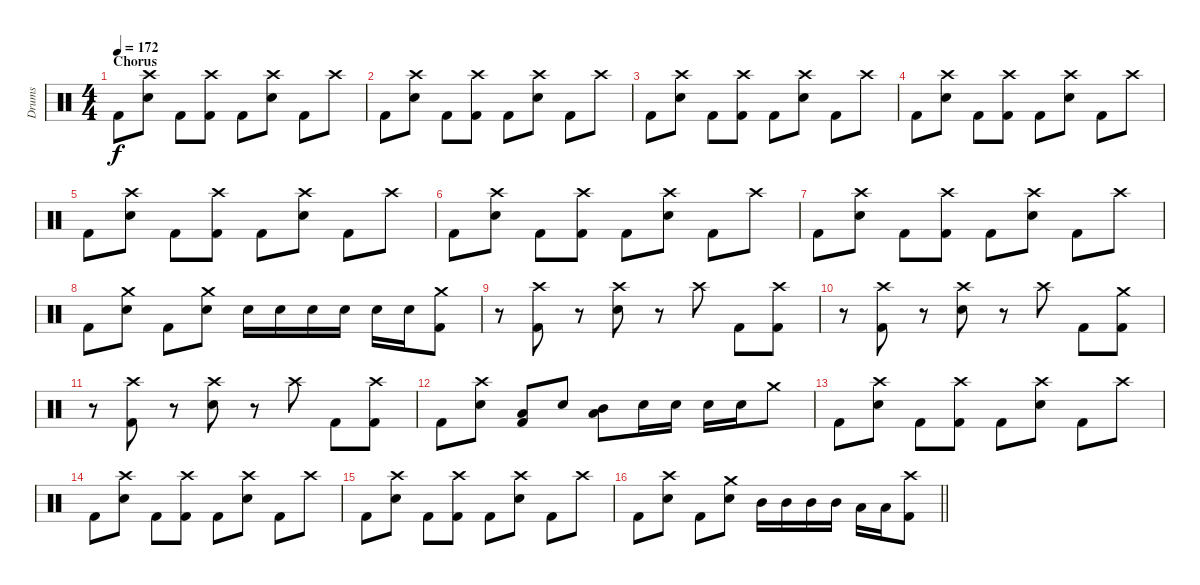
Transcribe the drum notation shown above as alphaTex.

\track ("Drums" "Drums") {instrument percussion}
\staff {score}
\articulation defaults
\ts (4 4)
\section ("" "Chorus")
\tempo 172
\clef neutral
\ks c "Kick (hit) 2".8{dy f}
("Crash high (hit)" "Electric Snare (hit)").8 "Kick (hit) 2".8 ("Crash high (hit)" "Kick (hit) 2").8 "Kick (hit) 2".8 ("Crash high (hit)" "Electric Snare (hit)").8 "Kick (hit) 2".8 "Crash high (hit)".8 |
"Kick (hit) 2".8 ("Crash high (hit)" "Electric Snare (hit)").8 "Kick (hit) 2".8 ("Crash high (hit)" "Kick (hit) 2").8 "Kick (hit) 2".8 ("Crash high (hit)" "Electric Snare (hit)").8 "Kick (hit) 2".8 "Crash high (hit)".8 |
"Kick (hit) 2".8 ("Crash high (hit)" "Electric Snare (hit)").8 "Kick (hit) 2".8 ("Crash high (hit)" "Kick (hit) 2").8 "Kick (hit) 2".8 ("Crash high (hit)" "Electric Snare (hit)").8 "Kick (hit) 2".8 "Crash high (hit)".8 |
"Kick (hit) 2".8 ("Crash high (hit)" "Electric Snare (hit)").8 "Kick (hit) 2".8 ("Crash high (hit)" "Kick (hit) 2").8 "Kick (hit) 2".8 ("Crash high (hit)" "Electric Snare (hit)").8 "Kick (hit) 2".8 "Crash high (hit)".8 |
"Kick (hit) 2".8 ("Crash high (hit)" "Electric Snare (hit)").8 "Kick (hit) 2".8 ("Crash high (hit)" "Kick (hit) 2").8 "Kick (hit) 2".8 ("Crash high (hit)" "Electric Snare (hit)").8 "Kick (hit) 2".8 "Crash high (hit)".8 |
"Kick (hit) 2".8 ("Crash high (hit)" "Electric Snare (hit)").8 "Kick (hit) 2".8 ("Crash high (hit)" "Kick (hit) 2").8 "Kick (hit) 2".8 ("Crash high (hit)" "Electric Snare (hit)").8 "Kick (hit) 2".8 "Crash high (hit)".8 |
"Kick (hit) 2".8 ("Crash high (hit)" "Electric Snare (hit)").8 "Kick (hit) 2".8 ("Crash high (hit)" "Kick (hit) 2").8 "Kick (hit) 2".8 ("Crash high (hit)" "Electric Snare (hit)").8 "Kick (hit) 2".8 "Crash high (hit)".8 |
"Kick (hit) 2".8 ("Crash medium (hit)" "Electric Snare (hit)").8 "Kick (hit) 2".8 ("Crash medium (hit)" "Electric Snare (hit)").8 "Electric Snare (hit)".16 "Electric Snare (hit)".16 "Electric Snare (hit)".16 "Electric Snare (hit)".16 "Electric Snare (hit)".16 "Electric Snare (hit)".16 ("Crash medium (hit)" "Kick (hit) 2").8 |
r.8 ("Crash high (hit)" "Kick (hit) 2").8 r.8 ("Crash high (hit)" "Electric Snare (hit)").8 r.8 "Crash high (hit)".8 "Kick (hit) 2".8 ("Crash high (hit)" "Kick (hit) 2").8 |
r.8 ("Crash high (hit)" "Kick (hit) 2").8 r.8 ("Crash high (hit)" "Electric Snare (hit)").8 r.8 "Crash high (hit)".8 "Kick (hit) 2".8 ("Crash medium (hit)" "Kick (hit) 2").8 |
r.8 ("Crash high (hit)" "Kick (hit) 2").8 r.8 ("Crash high (hit)" "Electric Snare (hit)").8 r.8 "Crash high (hit)".8 "Kick (hit) 2".8 ("Crash high (hit)" "Kick (hit) 2").8 |
"Kick (hit) 2".8 ("Crash high (hit)" "Electric Snare (hit)").8 ("Low Floor Tom (hit)" "Kick (hit) 2").8 "Electric Snare (hit)".8 ("Low Tom (hit)" "Mid Tom (hit)").8 "Electric Snare (hit)".16 "Electric Snare (hit)".16 "Electric Snare (hit)".16 "Electric Snare (hit)".16 "Crash medium (hit)".8 |
"Kick (hit) 2".8 ("Crash high (hit)" "Electric Snare (hit)").8 "Kick (hit) 2".8 ("Crash high (hit)" "Kick (hit) 2").8 "Kick (hit) 2".8 ("Crash high (hit)" "Electric Snare (hit)").8 "Kick (hit) 2".8 "Crash high (hit)".8 |
"Kick (hit) 2".8 ("Crash high (hit)" "Electric Snare (hit)").8 "Kick (hit) 2".8 ("Crash high (hit)" "Kick (hit) 2").8 "Kick (hit) 2".8 ("Crash high (hit)" "Electric Snare (hit)").8 "Kick (hit) 2".8 "Crash high (hit)".8 |
"Kick (hit) 2".8 ("Crash high (hit)" "Electric Snare (hit)").8 "Kick (hit) 2".8 ("Crash high (hit)" "Kick (hit) 2").8 "Kick (hit) 2".8 ("Crash high (hit)" "Electric Snare (hit)").8 "Kick (hit) 2".8 "Crash high (hit)".8 |
\barLineRight lightlight "Kick (hit) 2".8
("Crash high (hit)" "Electric Snare (hit)").8 "Kick (hit) 2".8 ("Crash medium (hit)" "Electric Snare (hit)").8 "Mid Tom (hit)".16 "Mid Tom (hit)".16 "Mid Tom (hit)".16 "Mid Tom (hit)".16 "Low Tom (hit)".16 "Low Tom (hit)".16 ("Crash high (hit)" "Kick (hit) 2").8
